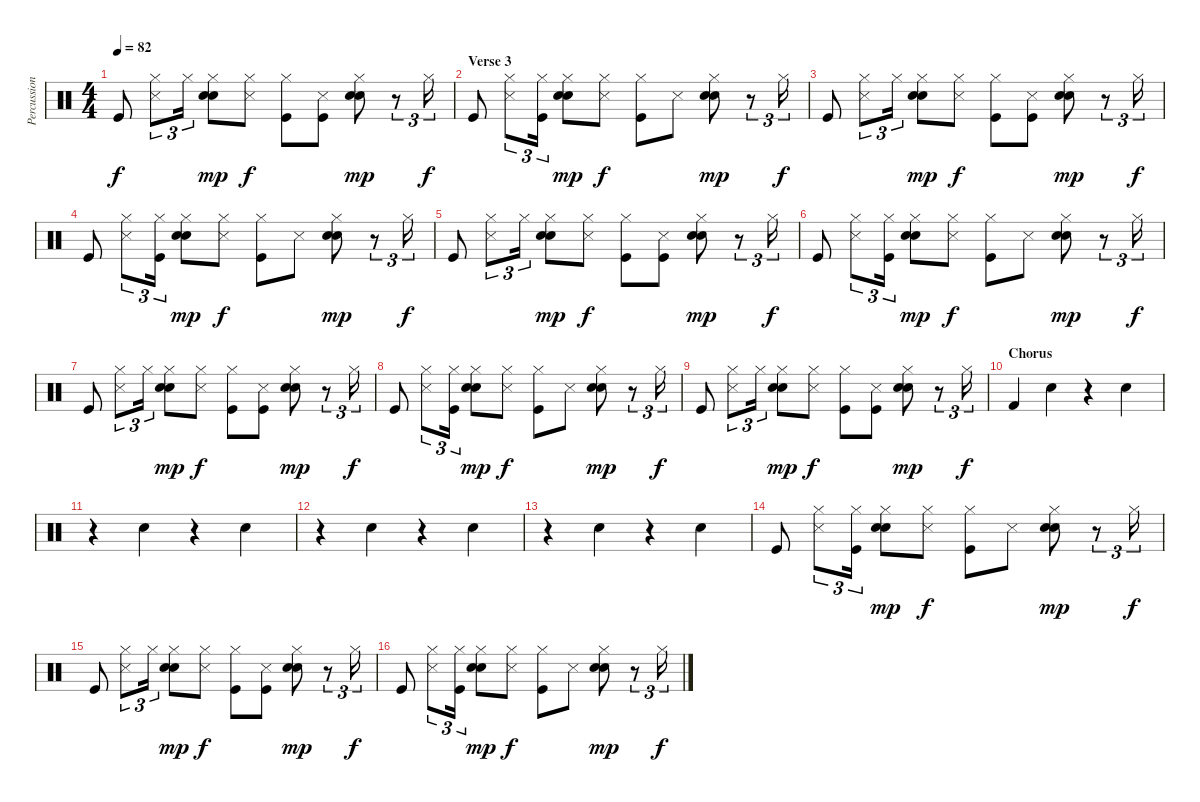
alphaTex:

\track ("Percussion" "Percussion") {instrument percussion}
\staff {score}
\articulation defaults
\ts (4 4)
\tempo 82
\clef neutral
\ks c "Kick (hit)".8{dy f}
("Hi-Hat (closed)" "Snare (side stick) 3").8{tu (3 2)} "Hi-Hat (closed)".16{tu (3 2)} ("Hi-Hat (closed)" "Hand Clap (hit)" "Electric Snare (hit)").8{dy mp} ("Hi-Hat (closed)" "Snare (side stick) 3").8{dy f} ("Hi-Hat (closed)" "Kick (hit)").8 ("Snare (side stick) 3" "Kick (hit)").8 ("Hi-Hat (closed)" "Hand Clap (hit)" "Electric Snare (hit)").8{dy mp} r.8{tu (3 2)} "Hi-Hat (closed)".16{tu (3 2) dy f} |
\section ("" "Verse 3")
"Kick (hit)".8{volume 13} ("Hi-Hat (closed)" "Snare (side stick) 3").8{tu (3 2)} ("Hi-Hat (closed)" "Kick (hit)").16{tu (3 2)} ("Hi-Hat (closed)" "Hand Clap (hit)" "Electric Snare (hit)").8{dy mp} ("Hi-Hat (closed)" "Snare (side stick) 3").8{dy f} ("Hi-Hat (closed)" "Kick (hit)").8 "Snare (side stick) 3".8 ("Hi-Hat (closed)" "Hand Clap (hit)" "Electric Snare (hit)").8{dy mp} r.8{tu (3 2)} "Hi-Hat (closed)".16{tu (3 2) dy f} |
"Kick (hit)".8 ("Hi-Hat (closed)" "Snare (side stick) 3").8{tu (3 2)} "Hi-Hat (closed)".16{tu (3 2)} ("Hi-Hat (closed)" "Hand Clap (hit)" "Electric Snare (hit)").8{dy mp} ("Hi-Hat (closed)" "Snare (side stick) 3").8{dy f} ("Hi-Hat (closed)" "Kick (hit)").8 ("Snare (side stick) 3" "Kick (hit)").8 ("Hi-Hat (closed)" "Hand Clap (hit)" "Electric Snare (hit)").8{dy mp} r.8{tu (3 2)} "Hi-Hat (closed)".16{tu (3 2) dy f} |
"Kick (hit)".8{volume 13} ("Hi-Hat (closed)" "Snare (side stick) 3").8{tu (3 2)} ("Hi-Hat (closed)" "Kick (hit)").16{tu (3 2)} ("Hi-Hat (closed)" "Hand Clap (hit)" "Electric Snare (hit)").8{dy mp} ("Hi-Hat (closed)" "Snare (side stick) 3").8{dy f} ("Hi-Hat (closed)" "Kick (hit)").8 "Snare (side stick) 3".8 ("Hi-Hat (closed)" "Hand Clap (hit)" "Electric Snare (hit)").8{dy mp} r.8{tu (3 2)} "Hi-Hat (closed)".16{tu (3 2) dy f} |
"Kick (hit)".8 ("Hi-Hat (closed)" "Snare (side stick) 3").8{tu (3 2)} "Hi-Hat (closed)".16{tu (3 2)} ("Hi-Hat (closed)" "Hand Clap (hit)" "Electric Snare (hit)").8{dy mp} ("Hi-Hat (closed)" "Snare (side stick) 3").8{dy f} ("Hi-Hat (closed)" "Kick (hit)").8 ("Snare (side stick) 3" "Kick (hit)").8 ("Hi-Hat (closed)" "Hand Clap (hit)" "Electric Snare (hit)").8{dy mp} r.8{tu (3 2)} "Hi-Hat (closed)".16{tu (3 2) dy f} |
"Kick (hit)".8{volume 13} ("Hi-Hat (closed)" "Snare (side stick) 3").8{tu (3 2)} ("Hi-Hat (closed)" "Kick (hit)").16{tu (3 2)} ("Hi-Hat (closed)" "Hand Clap (hit)" "Electric Snare (hit)").8{dy mp} ("Hi-Hat (closed)" "Snare (side stick) 3").8{dy f} ("Hi-Hat (closed)" "Kick (hit)").8 "Snare (side stick) 3".8 ("Hi-Hat (closed)" "Hand Clap (hit)" "Electric Snare (hit)").8{dy mp} r.8{tu (3 2)} "Hi-Hat (closed)".16{tu (3 2) dy f} |
"Kick (hit)".8 ("Hi-Hat (closed)" "Snare (side stick) 3").8{tu (3 2)} "Hi-Hat (closed)".16{tu (3 2)} ("Hi-Hat (closed)" "Hand Clap (hit)" "Electric Snare (hit)").8{dy mp} ("Hi-Hat (closed)" "Snare (side stick) 3").8{dy f} ("Hi-Hat (closed)" "Kick (hit)").8 ("Snare (side stick) 3" "Kick (hit)").8 ("Hi-Hat (closed)" "Hand Clap (hit)" "Electric Snare (hit)").8{dy mp} r.8{tu (3 2)} "Hi-Hat (closed)".16{tu (3 2) dy f} |
"Kick (hit)".8{volume 13} ("Hi-Hat (closed)" "Snare (side stick) 3").8{tu (3 2)} ("Hi-Hat (closed)" "Kick (hit)").16{tu (3 2)} ("Hi-Hat (closed)" "Hand Clap (hit)" "Electric Snare (hit)").8{dy mp} ("Hi-Hat (closed)" "Snare (side stick) 3").8{dy f} ("Hi-Hat (closed)" "Kick (hit)").8 "Snare (side stick) 3".8 ("Hi-Hat (closed)" "Hand Clap (hit)" "Electric Snare (hit)").8{dy mp} r.8{tu (3 2)} "Hi-Hat (closed)".16{tu (3 2) dy f} |
"Kick (hit)".8 ("Hi-Hat (closed)" "Snare (side stick) 3").8{tu (3 2)} "Hi-Hat (closed)".16{tu (3 2)} ("Hi-Hat (closed)" "Hand Clap (hit)" "Electric Snare (hit)").8{dy mp} ("Hi-Hat (closed)" "Snare (side stick) 3").8{dy f} ("Hi-Hat (closed)" "Kick (hit)").8 ("Snare (side stick) 3" "Kick (hit)").8 ("Hi-Hat (closed)" "Hand Clap (hit)" "Electric Snare (hit)").8{dy mp} r.8{tu (3 2)} "Hi-Hat (closed)".16{tu (3 2) dy f} |
\section ("" "Chorus")
"Kick (hit) 2".4 "Hand Clap (hit)".4 r.4 "Hand Clap (hit)".4 |
r.4 "Hand Clap (hit)".4 r.4 "Hand Clap (hit)".4 |
r.4 "Hand Clap (hit)".4 r.4 "Hand Clap (hit)".4 |
r.4 "Hand Clap (hit)".4 r.4 "Hand Clap (hit)".4 |
"Kick (hit)".8 ("Hi-Hat (closed)" "Snare (side stick) 3").8{tu (3 2)} ("Hi-Hat (closed)" "Kick (hit)").16{tu (3 2)} ("Hi-Hat (closed)" "Hand Clap (hit)" "Electric Snare (hit)").8{dy mp} ("Hi-Hat (closed)" "Snare (side stick) 3").8{dy f} ("Hi-Hat (closed)" "Kick (hit)").8 "Snare (side stick) 3".8 ("Hi-Hat (closed)" "Hand Clap (hit)" "Electric Snare (hit)").8{dy mp} r.8{tu (3 2)} "Hi-Hat (closed)".16{tu (3 2) dy f} |
"Kick (hit)".8 ("Hi-Hat (closed)" "Snare (side stick) 3").8{tu (3 2)} "Hi-Hat (closed)".16{tu (3 2)} ("Hi-Hat (closed)" "Hand Clap (hit)" "Electric Snare (hit)").8{dy mp} ("Hi-Hat (closed)" "Snare (side stick) 3").8{dy f} ("Hi-Hat (closed)" "Kick (hit)").8 ("Snare (side stick) 3" "Kick (hit)").8 ("Hi-Hat (closed)" "Hand Clap (hit)" "Electric Snare (hit)").8{dy mp} r.8{tu (3 2)} "Hi-Hat (closed)".16{tu (3 2) dy f} |
"Kick (hit)".8 ("Hi-Hat (closed)" "Snare (side stick) 3").8{tu (3 2)} ("Hi-Hat (closed)" "Kick (hit)").16{tu (3 2)} ("Hi-Hat (closed)" "Hand Clap (hit)" "Electric Snare (hit)").8{dy mp} ("Hi-Hat (closed)" "Snare (side stick) 3").8{dy f} ("Hi-Hat (closed)" "Kick (hit)").8 "Snare (side stick) 3".8 ("Hi-Hat (closed)" "Hand Clap (hit)" "Electric Snare (hit)").8{dy mp} r.8{tu (3 2)} "Hi-Hat (closed)".16{tu (3 2) dy f}
